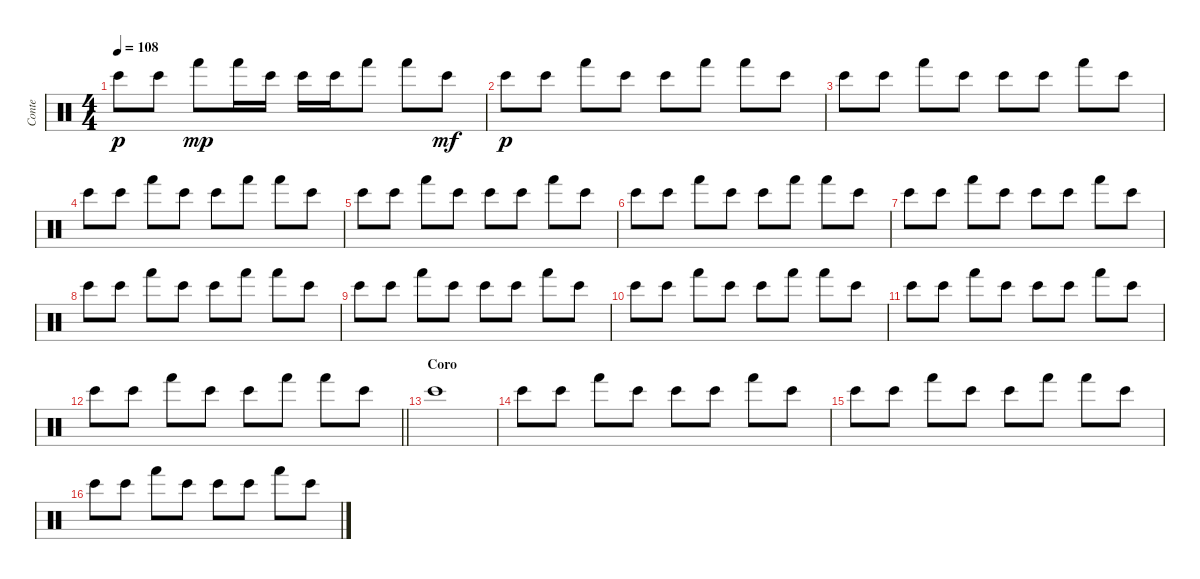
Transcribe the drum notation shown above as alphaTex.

\track ("Conte" "Conte") {instrument percussion}
\staff {score}
\articulation defaults
\ts (4 4)
\tempo 108
\clef neutral
\ks c "Bongo High (hit)".8{dy p} "Bongo High (hit)".8 "Hand (hit)".8{dy mp} "Hand (hit)".16 "Bongo High (hit)".16 "Bongo High (hit)".16 "Bongo High (hit)".16 "Hand (hit)".8 "Hand (hit)".8 "Bongo High (hit)".8{dy mf}
|
"Bongo High (hit)".8{dy p} "Bongo High (hit)".8 "Hand (hit)".8 "Bongo High (hit)".8 "Bongo High (hit)".8 "Hand (hit)".8 "Hand (hit)".8 "Bongo High (hit)".8 |
"Bongo High (hit)".8 "Bongo High (hit)".8 "Hand (hit)".8 "Bongo High (hit)".8 "Bongo High (hit)".8 "Bongo High (hit)".8 "Hand (hit)".8 "Bongo High (hit)".8 |
"Bongo High (hit)".8 "Bongo High (hit)".8 "Hand (hit)".8 "Bongo High (hit)".8 "Bongo High (hit)".8 "Hand (hit)".8 "Hand (hit)".8 "Bongo High (hit)".8 |
"Bongo High (hit)".8 "Bongo High (hit)".8 "Hand (hit)".8 "Bongo High (hit)".8 "Bongo High (hit)".8 "Bongo High (hit)".8 "Hand (hit)".8 "Bongo High (hit)".8 |
"Bongo High (hit)".8 "Bongo High (hit)".8 "Hand (hit)".8 "Bongo High (hit)".8 "Bongo High (hit)".8 "Hand (hit)".8 "Hand (hit)".8 "Bongo High (hit)".8 |
"Bongo High (hit)".8 "Bongo High (hit)".8 "Hand (hit)".8 "Bongo High (hit)".8 "Bongo High (hit)".8 "Bongo High (hit)".8 "Hand (hit)".8 "Bongo High (hit)".8 |
"Bongo High (hit)".8 "Bongo High (hit)".8 "Hand (hit)".8 "Bongo High (hit)".8 "Bongo High (hit)".8 "Hand (hit)".8 "Hand (hit)".8 "Bongo High (hit)".8 |
"Bongo High (hit)".8 "Bongo High (hit)".8 "Hand (hit)".8 "Bongo High (hit)".8 "Bongo High (hit)".8 "Bongo High (hit)".8 "Hand (hit)".8 "Bongo High (hit)".8 |
"Bongo High (hit)".8 "Bongo High (hit)".8 "Hand (hit)".8 "Bongo High (hit)".8 "Bongo High (hit)".8 "Hand (hit)".8 "Hand (hit)".8 "Bongo High (hit)".8 |
"Bongo High (hit)".8 "Bongo High (hit)".8 "Hand (hit)".8 "Bongo High (hit)".8 "Bongo High (hit)".8 "Bongo High (hit)".8 "Hand (hit)".8 "Bongo High (hit)".8 |
\barLineRight lightlight "Bongo High (hit)".8 "Bongo High (hit)".8 "Hand (hit)".8 "Bongo High (hit)".8 "Bongo High (hit)".8 "Hand (hit)".8 "Hand (hit)".8 "Bongo High (hit)".8
|
\section ("" "Coro")
"Bongo High (hit)".1 |
"Bongo High (hit)".8 "Bongo High (hit)".8 "Hand (hit)".8 "Bongo High (hit)".8 "Bongo High (hit)".8 "Bongo High (hit)".8 "Hand (hit)".8 "Bongo High (hit)".8 |
"Bongo High (hit)".8 "Bongo High (hit)".8 "Hand (hit)".8 "Bongo High (hit)".8 "Bongo High (hit)".8 "Hand (hit)".8 "Hand (hit)".8 "Bongo High (hit)".8 |
"Bongo High (hit)".8 "Bongo High (hit)".8 "Hand (hit)".8 "Bongo High (hit)".8 "Bongo High (hit)".8 "Bongo High (hit)".8 "Hand (hit)".8 "Bongo High (hit)".8
